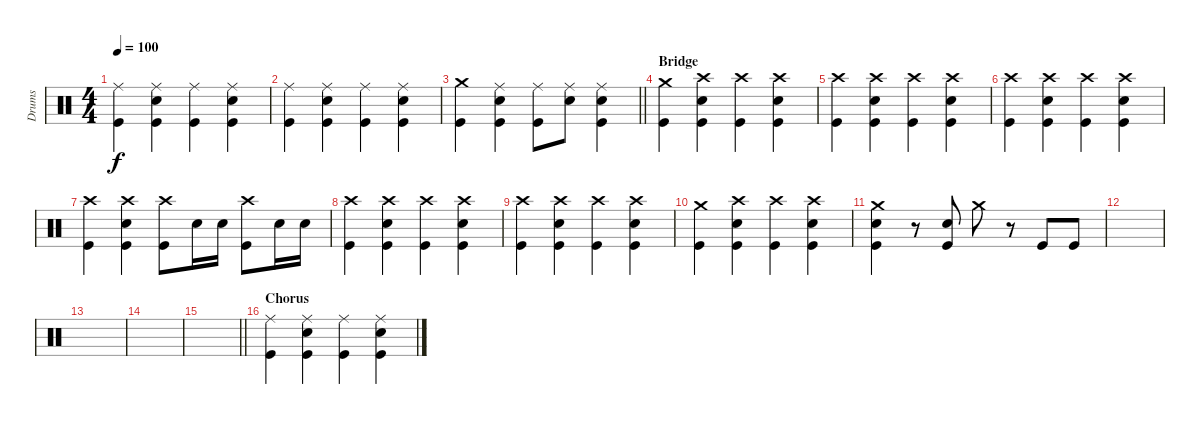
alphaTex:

\track ("Drums" "Drums") {instrument percussion}
\staff {score}
\articulation defaults
\ts (4 4)
\tempo 100
\clef neutral
\ks c
("Ride (middle)" "Kick (hit)").4{dy f} ("Ride (middle)" "Kick (hit)" "Snare (hit) 2").4 ("Ride (middle)" "Kick (hit)").4 ("Ride (middle)" "Kick (hit)" "Snare (hit) 2").4 |
("Ride (middle)" "Kick (hit)").4 ("Ride (middle)" "Kick (hit)" "Snare (hit) 2").4 ("Ride (middle)" "Kick (hit)").4 ("Ride (middle)" "Kick (hit)" "Snare (hit) 2").4 |
\barLineRight lightlight
("Crash medium (hit)" "Kick (hit)").4 ("Ride (middle)" "Kick (hit)" "Snare (hit) 2").4 ("Ride (middle)" "Kick (hit)").8 ("Ride (middle)" "Snare (hit) 2").8 ("Ride (middle)" "Kick (hit)" "Snare (hit) 2").4 |
\section ("" "Bridge")
("Crash medium (hit)" "Kick (hit)").4 ("Crash high (hit)" "Kick (hit)" "Snare (hit) 2").4 ("Crash high (hit)" "Kick (hit)").4 ("Crash high (hit)" "Kick (hit)" "Snare (hit) 2").4 |
("Crash high (hit)" "Kick (hit)").4 ("Crash high (hit)" "Kick (hit)" "Snare (hit) 2").4 ("Crash high (hit)" "Kick (hit)").4 ("Crash high (hit)" "Kick (hit)" "Snare (hit) 2").4 |
("Crash high (hit)" "Kick (hit)").4 ("Crash high (hit)" "Kick (hit)" "Snare (hit) 2").4 ("Crash high (hit)" "Kick (hit)").4 ("Crash high (hit)" "Kick (hit)" "Snare (hit) 2").4 |
("Crash high (hit)" "Kick (hit)").4 ("Crash high (hit)" "Kick (hit)" "Snare (hit) 2").4 ("Crash high (hit)" "Kick (hit)").8 "Snare (hit) 2".16 "Snare (hit) 2".16 ("Crash high (hit)" "Kick (hit)").8 "Snare (hit) 2".16 "Snare (hit) 2".16 |
("Crash high (hit)" "Kick (hit)").4 ("Crash high (hit)" "Kick (hit)" "Snare (hit) 2").4 ("Crash high (hit)" "Kick (hit)").4 ("Crash high (hit)" "Kick (hit)" "Snare (hit) 2").4 |
("Crash high (hit)" "Kick (hit)").4 ("Crash high (hit)" "Kick (hit)" "Snare (hit) 2").4 ("Crash high (hit)" "Kick (hit)").4 ("Crash high (hit)" "Kick (hit)" "Snare (hit) 2").4 |
("Crash medium (hit)" "Kick (hit)").4 ("Crash high (hit)" "Kick (hit)" "Snare (hit) 2").4 ("Crash high (hit)" "Kick (hit)").4 ("Crash high (hit)" "Kick (hit)" "Snare (hit) 2").4 |
("Crash medium (hit)" "Kick (hit)" "Snare (hit) 2").4 r.8 ("Kick (hit)" "Snare (hit) 2").8 "Crash medium (hit)".8 r.8 "Kick (hit)".8 "Kick (hit)".8 |
|
|
|
\barLineRight lightlight
|
\section ("" "Chorus")
("Ride (middle)" "Kick (hit)").4 ("Ride (middle)" "Kick (hit)" "Snare (hit) 2").4 ("Ride (middle)" "Kick (hit)").4 ("Ride (middle)" "Kick (hit)" "Snare (hit) 2").4
